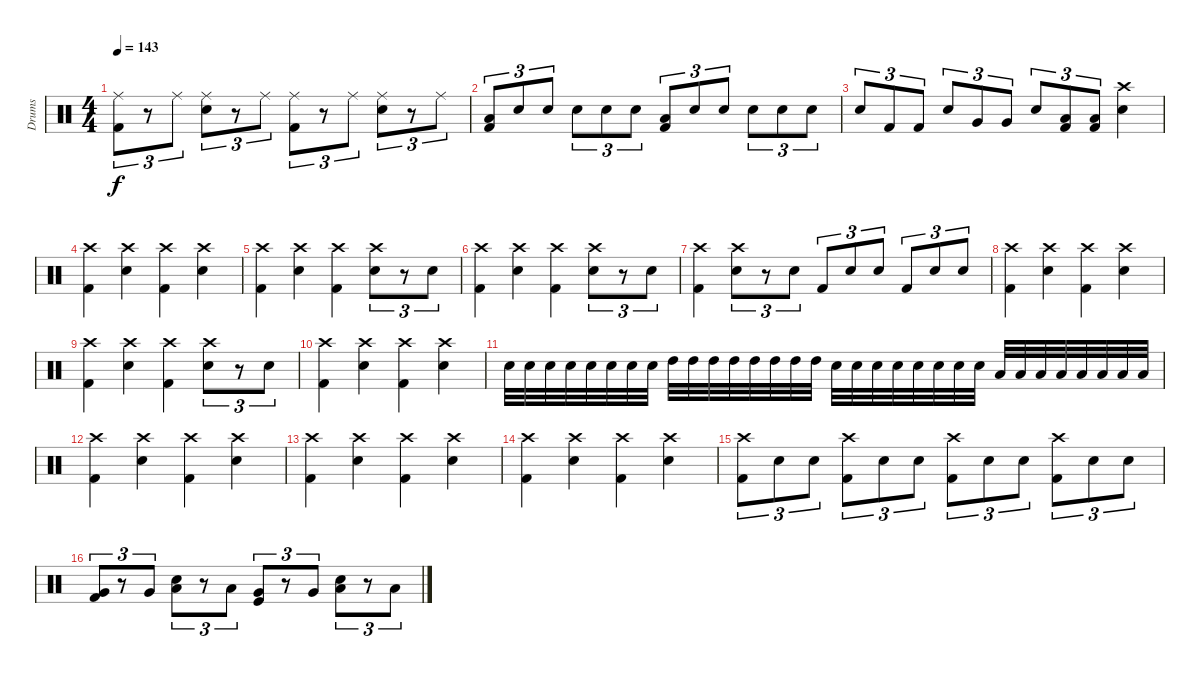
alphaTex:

\track ("Drums" "Drums") {instrument percussion}
\staff {score}
\articulation defaults
\ts (4 4)
\tempo 143
\clef neutral
\ks c
("Kick (hit) 2" "Ride (middle)").8{tu (3 2) dy f} r.8{tu (3 2)} "Ride (middle)".8{tu (3 2)} ("Snare (hit) 2" "Ride (middle)").8{tu (3 2)} r.8{tu (3 2)} "Ride (middle)".8{tu (3 2)} ("Kick (hit) 2" "Ride (middle)").8{tu (3 2)} r.8{tu (3 2)} "Ride (middle)".8{tu (3 2)} ("Snare (hit) 2" "Ride (middle)").8{tu (3 2)} r.8{tu (3 2)} "Ride (middle)".8{tu (3 2)} |
("Low Tom (hit)" "Kick (hit) 2").8{tu (3 2)} "Snare (hit) 2".8{tu (3 2)} "Snare (hit) 2".8{tu (3 2)} "Snare (hit) 2".8{tu (3 2)} "Snare (hit) 2".8{tu (3 2)} "Snare (hit) 2".8{tu (3 2)} ("Low Tom (hit)" "Kick (hit) 2").8{tu (3 2)} "Snare (hit) 2".8{tu (3 2)} "Snare (hit) 2".8{tu (3 2)} "Snare (hit) 2".8{tu (3 2)} "Snare (hit) 2".8{tu (3 2)} "Snare (hit) 2".8{tu (3 2)} |
"Snare (hit) 2".8{tu (3 2)} "Kick (hit) 2".8{tu (3 2)} "Kick (hit) 2".8{tu (3 2)} "Snare (hit) 2".8{tu (3 2)} "Very Low Tom (hit)".8{tu (3 2)} "Very Low Tom (hit)".8{tu (3 2)} "Snare (hit) 2".8{tu (3 2)} ("Low Tom (hit)" "Kick (hit) 2").8{tu (3 2)} ("Low Tom (hit)" "Kick (hit) 2").8{tu (3 2)} ("Crash high (hit)" "Snare (hit) 2").4 |
("Kick (hit) 2" "Crash high (hit)").4 ("Snare (hit) 2" "Crash high (hit)").4 ("Kick (hit) 2" "Crash high (hit)").4 ("Snare (hit) 2" "Crash high (hit)").4 |
("Kick (hit) 2" "Crash high (hit)").4 ("Snare (hit) 2" "Crash high (hit)").4 ("Kick (hit) 2" "Crash high (hit)").4 ("Snare (hit) 2" "Crash high (hit)").8{tu (3 2)} r.8{tu (3 2)} "Snare (hit) 2".8{tu (3 2)} |
("Kick (hit) 2" "Crash high (hit)").4 ("Snare (hit) 2" "Crash high (hit)").4 ("Kick (hit) 2" "Crash high (hit)").4 ("Snare (hit) 2" "Crash high (hit)").8{tu (3 2)} r.8{tu (3 2)} "Snare (hit) 2".8{tu (3 2)} |
("Kick (hit) 2" "Crash high (hit)").4 ("Snare (hit) 2" "Crash high (hit)").8{tu (3 2)} r.8{tu (3 2)} "Snare (hit) 2".8{tu (3 2)} "Kick (hit) 2".8{tu (3 2)} "Snare (hit) 2".8{tu (3 2)} "Snare (hit) 2".8{tu (3 2)} "Kick (hit) 2".8{tu (3 2)} "Snare (hit) 2".8{tu (3 2)} "Snare (hit) 2".8{tu (3 2)} |
("Kick (hit) 2" "Crash high (hit)").4 ("Snare (hit) 2" "Crash high (hit)").4 ("Kick (hit) 2" "Crash high (hit)").4 ("Snare (hit) 2" "Crash high (hit)").4 |
("Kick (hit) 2" "Crash high (hit)").4 ("Snare (hit) 2" "Crash high (hit)").4 ("Kick (hit) 2" "Crash high (hit)").4 ("Snare (hit) 2" "Crash high (hit)").8{tu (3 2)} r.8{tu (3 2)} "Snare (hit) 2".8{tu (3 2)} |
("Kick (hit) 2" "Crash high (hit)").4 ("Snare (hit) 2" "Crash high (hit)").4 ("Kick (hit) 2" "Crash high (hit)").4 ("Snare (hit) 2" "Crash high (hit)").4 |
"Snare (hit) 2".32 "Snare (hit) 2".32 "Snare (hit) 2".32 "Snare (hit) 2".32 "Snare (hit) 2".32 "Snare (hit) 2".32 "Snare (hit) 2".32 "Snare (hit) 2".32 "High Tom (hit)".32 "High Tom (hit)".32 "High Tom (hit)".32 "High Tom (hit)".32 "High Tom (hit)".32 "High Tom (hit)".32 "High Tom (hit)".32 "High Tom (hit)".32 "Snare (hit) 2".32 "Snare (hit) 2".32 "Snare (hit) 2".32 "Snare (hit) 2".32 "Snare (hit) 2".32 "Snare (hit) 2".32 "Snare (hit) 2".32 "Snare (hit) 2".32 "Low Tom (hit)".32 "Low Tom (hit)".32 "Low Tom (hit)".32 "Low Tom (hit)".32 "Low Tom (hit)".32 "Low Tom (hit)".32 "Low Tom (hit)".32 "Low Tom (hit)".32 |
("Kick (hit) 2" "Crash high (hit)").4 ("Snare (hit) 2" "Crash high (hit)").4 ("Kick (hit) 2" "Crash high (hit)").4 ("Snare (hit) 2" "Crash high (hit)").4 |
("Kick (hit) 2" "Crash high (hit)").4 ("Snare (hit) 2" "Crash high (hit)").4 ("Kick (hit) 2" "Crash high (hit)").4 ("Snare (hit) 2" "Crash high (hit)").4 |
("Kick (hit) 2" "Crash high (hit)").4 ("Snare (hit) 2" "Crash high (hit)").4 ("Kick (hit) 2" "Crash high (hit)").4 ("Snare (hit) 2" "Crash high (hit)").4 |
("Crash high (hit)" "Kick (hit) 2").8{tu (3 2)} "Snare (hit) 2".8{tu (3 2)} "Snare (hit) 2".8{tu (3 2)} ("Crash high (hit)" "Kick (hit) 2").8{tu (3 2)} "Snare (hit) 2".8{tu (3 2)} "Snare (hit) 2".8{tu (3 2)} ("Crash high (hit)" "Kick (hit) 2").8{tu (3 2)} "Snare (hit) 2".8{tu (3 2)} "Snare (hit) 2".8{tu (3 2)} ("Crash high (hit)" "Kick (hit) 2").8{tu (3 2)} "Snare (hit) 2".8{tu (3 2)} "Snare (hit) 2".8{tu (3 2)} |
("Kick (hit) 2" "Very Low Tom (hit)").8{tu (3 2)} r.8{tu (3 2)} "Very Low Tom (hit)".8{tu (3 2)} ("Snare (hit) 2" "Low Tom (hit)").8{tu (3 2)} r.8{tu (3 2)} "Low Tom (hit)".8{tu (3 2)} ("Kick (hit)" "Very Low Tom (hit)").8{tu (3 2)} r.8{tu (3 2)} "Very Low Tom (hit)".8{tu (3 2)} ("Snare (hit) 2" "Low Tom (hit)").8{tu (3 2)} r.8{tu (3 2)} "Low Tom (hit)".8{tu (3 2)}
